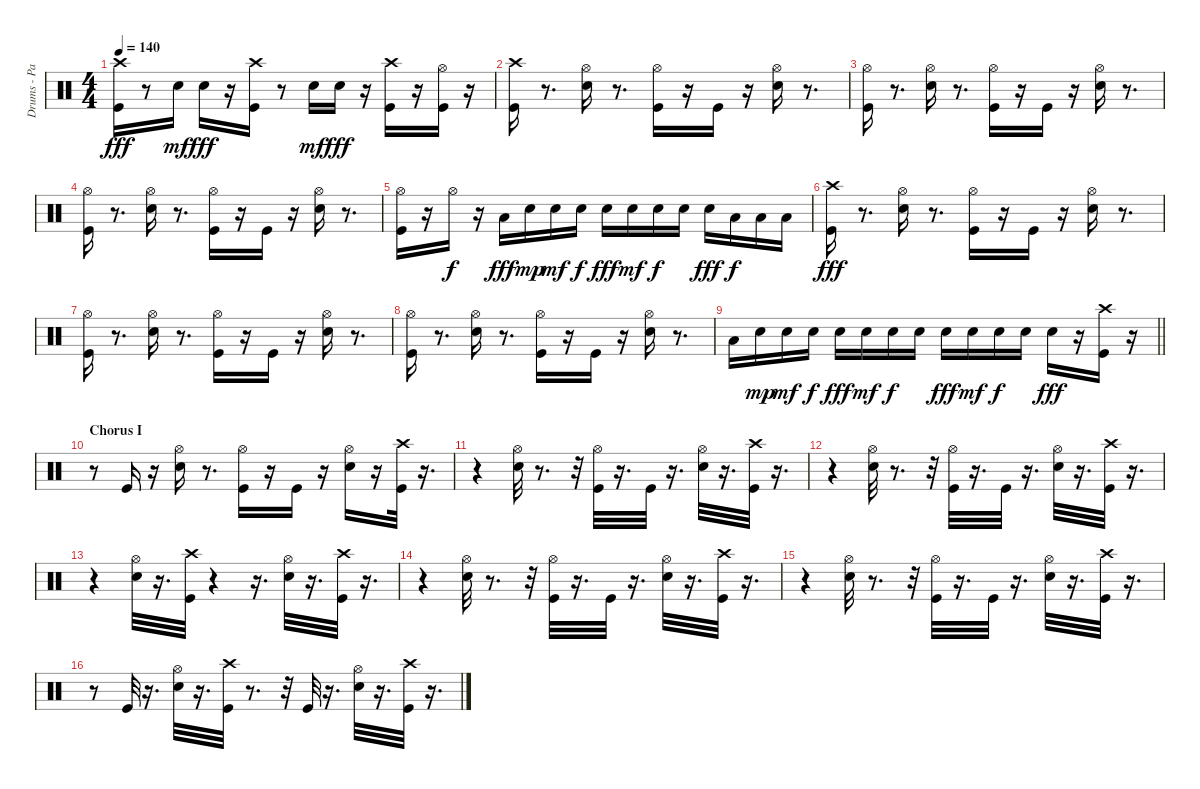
\track ("Drums - Paice" "Drums - Pa") {instrument percussion}
\staff {score}
\articulation defaults
\ts (4 4)
\tempo 140
\clef neutral
\ks c
("Crash high (hit)" "Kick (hit)").16{dy fff} r.8 "Snare (hit) 2".16{dy mf} "Snare (hit) 2".16{dy fff} r.16 ("Crash high (hit)" "Kick (hit)").16 r.8 "Snare (hit) 2".16{dy mf} "Snare (hit) 2".16{dy fff} r.16 ("Crash high (hit)" "Kick (hit)").16 r.16 ("Hi-Hat (open)" "Kick (hit)").16 r.16 |
("Crash high (hit)" "Kick (hit)").16 r.8{d} ("Snare (hit) 2" "Hi-Hat (open)").16 r.8{d} ("Hi-Hat (open)" "Kick (hit)").16 r.16 "Kick (hit)".16 r.16 ("Hi-Hat (open)" "Snare (hit) 2").16 r.8{d} |
("Kick (hit)" "Hi-Hat (open)").16 r.8{d} ("Hi-Hat (open)" "Snare (hit) 2").16 r.8{d} ("Hi-Hat (open)" "Kick (hit)").16 r.16 "Kick (hit)".16 r.16 ("Hi-Hat (open)" "Snare (hit) 2").16 r.8{d} |
("Hi-Hat (open)" "Kick (hit)").16 r.8{d} ("Hi-Hat (open)" "Snare (hit) 2").16 r.8{d} ("Kick (hit)" "Hi-Hat (open)").16 r.16 "Kick (hit)".16 r.16 ("Snare (hit) 2" "Hi-Hat (open)").16 r.8{d} |
("Hi-Hat (open)" "Kick (hit)").16 r.16 "Hi-Hat (open)".16{dy f} r.16 "Low Tom (hit)".16{dy fff} "Snare (hit) 2".16{dy mp} "Snare (hit) 2".16{dy mf} "Snare (hit) 2".16{dy f} "Snare (hit) 2".16{dy fff} "Snare (hit) 2".16{dy mf} "Snare (hit) 2".16{dy f} "Snare (hit) 2".16 "Snare (hit) 2".16{dy fff} "Low Tom (hit)".16{dy f} "Low Tom (hit)".16 "Low Tom (hit)".16 |
("Crash high (hit)" "Kick (hit)").16{dy fff} r.8{d} ("Snare (hit) 2" "Hi-Hat (open)").16 r.8{d} ("Hi-Hat (open)" "Kick (hit)").16 r.16 "Kick (hit)".16 r.16 ("Snare (hit) 2" "Hi-Hat (open)").16 r.8{d} |
("Kick (hit)" "Hi-Hat (open)").16 r.8{d} ("Snare (hit) 2" "Hi-Hat (open)").16 r.8{d} ("Hi-Hat (open)" "Kick (hit)").16 r.16 "Kick (hit)".16 r.16 ("Hi-Hat (open)" "Snare (hit) 2").16 r.8{d} |
("Kick (hit)" "Hi-Hat (open)").16 r.8{d} ("Snare (hit) 2" "Hi-Hat (open)").16 r.8{d} ("Hi-Hat (open)" "Kick (hit)").16 r.16 "Kick (hit)".16 r.16 ("Hi-Hat (open)" "Snare (hit) 2").16 r.8{d} |
\barLineRight lightlight "Low Tom (hit)".16 "Snare (hit) 2".16{dy mp} "Snare (hit) 2".16{dy mf} "Snare (hit) 2".16{dy f} "Snare (hit) 2".16{dy fff} "Snare (hit) 2".16{dy mf} "Snare (hit) 2".16{dy f} "Snare (hit) 2".16 "Snare (hit) 2".16{dy fff} "Snare (hit) 2".16{dy mf} "Snare (hit) 2".16{dy f} "Snare (hit) 2".16 "Snare (hit) 2".16{dy fff}
r.16 ("Kick (hit)" "Crash high (hit)").16 r.16 |
\section ("" "Chorus I")
r.8 "Kick (hit)".16 r.16 ("Hi-Hat (open)" "Snare (hit) 2").16 r.8{d} ("Hi-Hat (open)" "Kick (hit)").16 r.16 "Kick (hit)".16 r.16 ("Hi-Hat (open)" "Snare (hit) 2").16 r.16 ("Kick (hit)" "Crash high (hit)").32 r.16{d} |
r.4 ("Hi-Hat (open)" "Snare (hit) 2").32 r.8{d} r.32 ("Hi-Hat (open)" "Kick (hit)").32 r.16{d} "Kick (hit)".32 r.16{d} ("Hi-Hat (open)" "Snare (hit) 2").32 r.16{d} ("Kick (hit)" "Crash high (hit)").32 r.16{d} |
r.4 ("Hi-Hat (open)" "Snare (hit) 2").32 r.8{d} r.32 ("Hi-Hat (open)" "Kick (hit)").32 r.16{d} "Kick (hit)".32 r.16{d} ("Hi-Hat (open)" "Snare (hit) 2").32 r.16{d} ("Kick (hit)" "Crash high (hit)").32 r.16{d} |
r.4 ("Hi-Hat (open)" "Snare (hit) 2").32 r.16{d} ("Kick (hit)" "Crash high (hit)").32 r.4 r.16{d} ("Hi-Hat (open)" "Snare (hit) 2").32 r.16{d} ("Kick (hit)" "Crash high (hit)").32 r.16{d} |
r.4 ("Snare (hit) 2" "Hi-Hat (open)").32 r.8{d} r.32 ("Kick (hit)" "Hi-Hat (open)").32 r.16{d} "Kick (hit)".32 r.16{d} ("Hi-Hat (open)" "Snare (hit) 2").32 r.16{d} ("Crash high (hit)" "Kick (hit)").32 r.16{d} |
r.4 ("Snare (hit) 2" "Hi-Hat (open)").32 r.8{d} r.32 ("Kick (hit)" "Hi-Hat (open)").32 r.16{d} "Kick (hit)".32 r.16{d} ("Snare (hit) 2" "Hi-Hat (open)").32 r.16{d} ("Crash high (hit)" "Kick (hit)").32 r.16{d} |
r.8 "Kick (hit)".32 r.16{d} ("Hi-Hat (open)" "Snare (hit) 2").32 r.16{d} ("Kick (hit)" "Crash high (hit)").32 r.8{d} r.32 "Kick (hit)".32 r.16{d} ("Hi-Hat (open)" "Snare (hit) 2").32 r.16{d} ("Crash high (hit)" "Kick (hit)").32 r.16{d}
